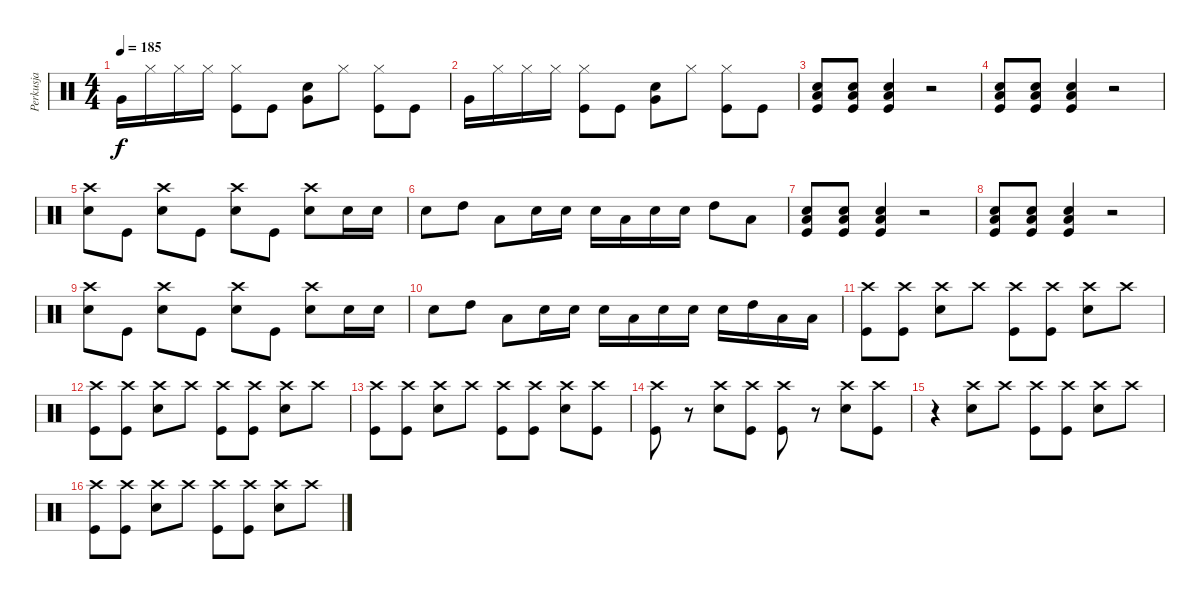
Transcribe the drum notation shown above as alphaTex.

\track ("Perkusja" "Perkusja") {instrument percussion}
\staff {score}
\articulation defaults
\ts (4 4)
\tempo 185
\clef neutral
\ks c "Very Low Tom (hit)".16{dy f} "Hi-Hat (closed)".16 "Hi-Hat (closed)".16 "Hi-Hat (closed)".16
("Hi-Hat (closed)" "Kick (hit)").8 "Kick (hit)".8 ("Snare (hit) 2" "Very Low Tom (hit)").8 "Hi-Hat (closed)".8 ("Hi-Hat (closed)" "Kick (hit)").8 "Kick (hit)".8 |
"Very Low Tom (hit)".16 "Hi-Hat (closed)".16 "Hi-Hat (closed)".16 "Hi-Hat (closed)".16 ("Hi-Hat (closed)" "Kick (hit)").8 "Kick (hit)".8 ("Snare (hit) 2" "Very Low Tom (hit)").8 "Hi-Hat (closed)".8 ("Hi-Hat (closed)" "Kick (hit)").8 "Kick (hit)".8 |
("Snare (hit) 2" "Low Floor Tom (hit)" "Kick (hit)").8 ("Snare (hit) 2" "Low Floor Tom (hit)" "Kick (hit)").8 ("Snare (hit) 2" "Low Floor Tom (hit)" "Kick (hit)").4 r.2 |
("Snare (hit) 2" "Low Floor Tom (hit)" "Kick (hit)").8 ("Snare (hit) 2" "Low Floor Tom (hit)" "Kick (hit)").8 ("Snare (hit) 2" "Low Floor Tom (hit)" "Kick (hit)").4 r.2 |
("Crash high (hit)" "Snare (hit) 2").8 "Kick (hit)".8 ("Crash high (hit)" "Snare (hit) 2").8 "Kick (hit)".8 ("Crash high (hit)" "Snare (hit) 2").8 "Kick (hit)".8 ("Crash high (hit)" "Snare (hit) 2").8 "Snare (hit) 2".16 "Snare (hit) 2".16 |
"Snare (hit) 2".8 "High Tom (hit)".8 "Low Floor Tom (hit)".8 "Snare (hit) 2".16 "Snare (hit) 2".16 "Snare (hit) 2".16 "Low Floor Tom (hit)".16 "Snare (hit) 2".16 "Snare (hit) 2".16 "High Tom (hit)".8 "Low Floor Tom (hit)".8 |
("Snare (hit) 2" "Low Floor Tom (hit)" "Kick (hit)").8 ("Snare (hit) 2" "Low Floor Tom (hit)" "Kick (hit)").8 ("Snare (hit) 2" "Low Floor Tom (hit)" "Kick (hit)").4 r.2 |
("Snare (hit) 2" "Low Floor Tom (hit)" "Kick (hit)").8 ("Snare (hit) 2" "Low Floor Tom (hit)" "Kick (hit)").8 ("Snare (hit) 2" "Low Floor Tom (hit)" "Kick (hit)").4 r.2 |
("Crash high (hit)" "Snare (hit) 2").8 "Kick (hit)".8 ("Crash high (hit)" "Snare (hit) 2").8 "Kick (hit)".8 ("Crash high (hit)" "Snare (hit) 2").8 "Kick (hit)".8 ("Crash high (hit)" "Snare (hit) 2").8 "Snare (hit) 2".16 "Snare (hit) 2".16 |
"Snare (hit) 2".8 "High Tom (hit)".8 "Low Floor Tom (hit)".8 "Snare (hit) 2".16 "Snare (hit) 2".16 "Snare (hit) 2".16 "Low Floor Tom (hit)".16 "Snare (hit) 2".16 "Snare (hit) 2".16 "Snare (hit) 2".16 "High Tom (hit)".16 "Low Floor Tom (hit)".16 "Low Floor Tom (hit)".16 |
("Crash high (hit)" "Kick (hit)").8 ("Crash high (hit)" "Kick (hit)").8 ("Crash high (hit)" "Snare (hit) 2").8 "Crash high (hit)".8 ("Crash high (hit)" "Kick (hit)").8 ("Crash high (hit)" "Kick (hit)").8 ("Crash high (hit)" "Snare (hit) 2").8 "Crash high (hit)".8 |
("Crash high (hit)" "Kick (hit)").8 ("Crash high (hit)" "Kick (hit)").8 ("Crash high (hit)" "Snare (hit) 2").8 "Crash high (hit)".8 ("Crash high (hit)" "Kick (hit)").8 ("Crash high (hit)" "Kick (hit)").8 ("Crash high (hit)" "Snare (hit) 2").8 "Crash high (hit)".8 |
("Crash high (hit)" "Kick (hit)").8 ("Crash high (hit)" "Kick (hit)").8 ("Crash high (hit)" "Snare (hit) 2").8 "Crash high (hit)".8 ("Crash high (hit)" "Kick (hit)").8 ("Crash high (hit)" "Kick (hit)").8 ("Crash high (hit)" "Snare (hit) 2").8 ("Crash high (hit)" "Kick (hit)").8 |
("Crash high (hit)" "Kick (hit)").8 r.8 ("Crash high (hit)" "Snare (hit) 2").8 ("Crash high (hit)" "Kick (hit)").8 ("Crash high (hit)" "Kick (hit)").8 r.8 ("Crash high (hit)" "Snare (hit) 2").8 ("Crash high (hit)" "Kick (hit)").8 |
r.4 ("Crash high (hit)" "Snare (hit) 2").8 "Crash high (hit)".8 ("Crash high (hit)" "Kick (hit)").8 ("Crash high (hit)" "Kick (hit)").8 ("Crash high (hit)" "Snare (hit) 2").8 "Crash high (hit)".8 |
("Crash high (hit)" "Kick (hit)").8 ("Crash high (hit)" "Kick (hit)").8 ("Crash high (hit)" "Snare (hit) 2").8 "Crash high (hit)".8 ("Crash high (hit)" "Kick (hit)").8 ("Crash high (hit)" "Kick (hit)").8 ("Crash high (hit)" "Snare (hit) 2").8 "Crash high (hit)".8
